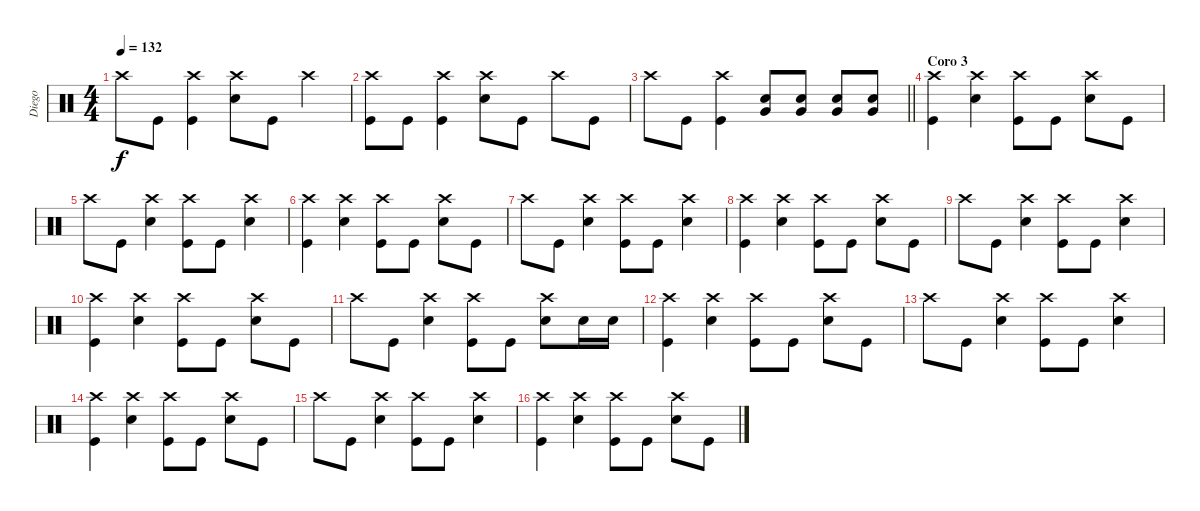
\track ("Diego" "Diego") {instrument percussion}
\staff {score}
\articulation defaults
\ts (4 4)
\tempo 132
\clef neutral
\ks c "Crash high (hit)".8{dy f} "Kick (hit)".8
("Crash high (hit)" "Kick (hit)").4 ("Crash high (hit)" "Snare (hit) 2").8 "Kick (hit)".8 "Crash high (hit)".4 |
("Crash high (hit)" "Kick (hit)").8 "Kick (hit)".8 ("Crash high (hit)" "Kick (hit)").4 ("Crash high (hit)" "Snare (hit) 2").8 "Kick (hit)".8 "Crash high (hit)".8 "Kick (hit)".8 |
\barLineRight lightlight "Crash high (hit)".8 "Kick (hit)".8
("Crash high (hit)" "Kick (hit)").4 ("Snare (hit) 2" "Very Low Tom (hit)").8 ("Snare (hit) 2" "Very Low Tom (hit)").8 ("Snare (hit) 2" "Very Low Tom (hit)").8 ("Snare (hit) 2" "Very Low Tom (hit)").8 |
\section ("" "Coro 3")
("Crash high (hit)" "Kick (hit)").4 ("Crash high (hit)" "Snare (hit) 2").4 ("Crash high (hit)" "Kick (hit)").8 "Kick (hit)".8 ("Crash high (hit)" "Snare (hit) 2").8 "Kick (hit)".8 |
"Crash high (hit)".8 "Kick (hit)".8 ("Crash high (hit)" "Snare (hit) 2").4 ("Crash high (hit)" "Kick (hit)").8 "Kick (hit)".8 ("Crash high (hit)" "Snare (hit) 2").4 |
("Crash high (hit)" "Kick (hit)").4 ("Crash high (hit)" "Snare (hit) 2").4 ("Crash high (hit)" "Kick (hit)").8 "Kick (hit)".8 ("Crash high (hit)" "Snare (hit) 2").8 "Kick (hit)".8 |
"Crash high (hit)".8 "Kick (hit)".8 ("Crash high (hit)" "Snare (hit) 2").4 ("Crash high (hit)" "Kick (hit)").8 "Kick (hit)".8 ("Crash high (hit)" "Snare (hit) 2").4 |
("Crash high (hit)" "Kick (hit)").4 ("Crash high (hit)" "Snare (hit) 2").4 ("Crash high (hit)" "Kick (hit)").8 "Kick (hit)".8 ("Crash high (hit)" "Snare (hit) 2").8 "Kick (hit)".8 |
"Crash high (hit)".8 "Kick (hit)".8 ("Crash high (hit)" "Snare (hit) 2").4 ("Crash high (hit)" "Kick (hit)").8 "Kick (hit)".8 ("Crash high (hit)" "Snare (hit) 2").4 |
("Crash high (hit)" "Kick (hit)").4 ("Crash high (hit)" "Snare (hit) 2").4 ("Crash high (hit)" "Kick (hit)").8 "Kick (hit)".8 ("Crash high (hit)" "Snare (hit) 2").8 "Kick (hit)".8 |
"Crash high (hit)".8 "Kick (hit)".8 ("Crash high (hit)" "Snare (hit) 2").4 ("Crash high (hit)" "Kick (hit)").8 "Kick (hit)".8 ("Crash high (hit)" "Snare (hit) 2").8 "Snare (hit) 2".16 "Snare (hit) 2".16 |
("Crash high (hit)" "Kick (hit)").4 ("Crash high (hit)" "Snare (hit) 2").4 ("Crash high (hit)" "Kick (hit)").8 "Kick (hit)".8 ("Crash high (hit)" "Snare (hit) 2").8 "Kick (hit)".8 |
"Crash high (hit)".8 "Kick (hit)".8 ("Crash high (hit)" "Snare (hit) 2").4 ("Crash high (hit)" "Kick (hit)").8 "Kick (hit)".8 ("Crash high (hit)" "Snare (hit) 2").4 |
("Crash high (hit)" "Kick (hit)").4 ("Crash high (hit)" "Snare (hit) 2").4 ("Crash high (hit)" "Kick (hit)").8 "Kick (hit)".8 ("Crash high (hit)" "Snare (hit) 2").8 "Kick (hit)".8 |
"Crash high (hit)".8 "Kick (hit)".8 ("Crash high (hit)" "Snare (hit) 2").4 ("Crash high (hit)" "Kick (hit)").8 "Kick (hit)".8 ("Crash high (hit)" "Snare (hit) 2").4 |
("Crash high (hit)" "Kick (hit)").4 ("Crash high (hit)" "Snare (hit) 2").4 ("Crash high (hit)" "Kick (hit)").8 "Kick (hit)".8 ("Crash high (hit)" "Snare (hit) 2").8 "Kick (hit)".8
